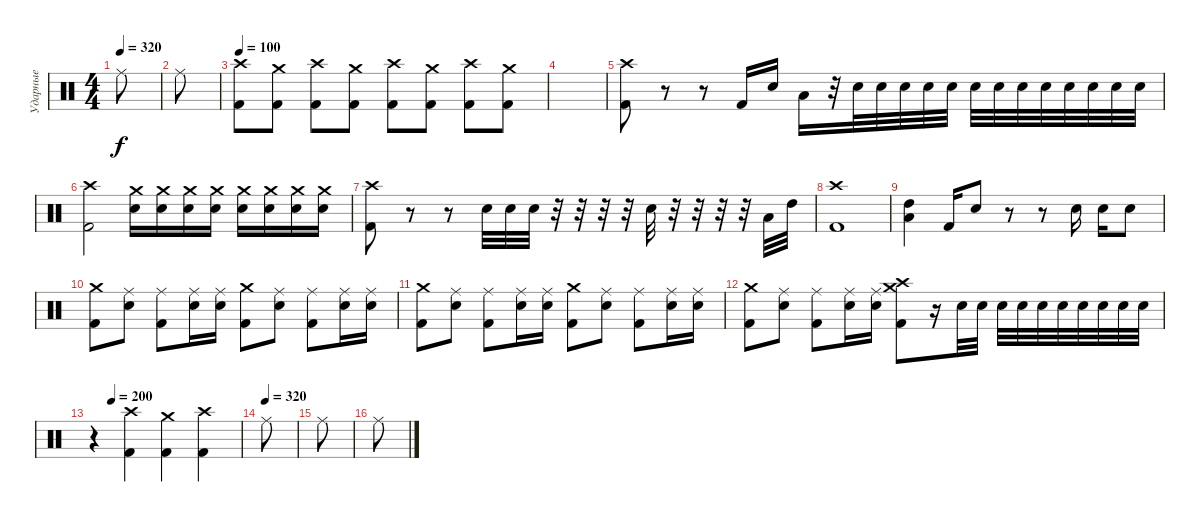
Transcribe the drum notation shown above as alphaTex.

\track ("Ударные" "Ударные") {instrument percussion}
\staff {score}
\articulation defaults
\ts (4 4)
\tempo 320
\clef neutral
\ks c "Ride (middle)".8{dy f}
|
"Ride (middle)".8 |
\tempo 100
("Kick (hit) 2" "Crash high (hit)").8 ("Kick (hit) 2" "Crash medium (hit)").8 ("Kick (hit) 2" "Crash high (hit)").8 ("Kick (hit) 2" "Crash medium (hit)").8 ("Kick (hit) 2" "Crash high (hit)").8 ("Kick (hit) 2" "Crash medium (hit)").8 ("Kick (hit) 2" "Crash high (hit)").8 ("Kick (hit) 2" "Crash medium (hit)").8 |
|
("Kick (hit) 2" "Crash high (hit)").8 r.8 r.8 "Kick (hit) 2".16 "Electric Snare (hit)".16 "Low Tom (hit)".16 r.32 "Electric Snare (hit)".32 "Electric Snare (hit)".32 "Electric Snare (hit)".32 "Electric Snare (hit)".32 "Electric Snare (hit)".32 "Electric Snare (hit)".32 "Electric Snare (hit)".32 "Electric Snare (hit)".32 "Electric Snare (hit)".32 "Electric Snare (hit)".32 "Electric Snare (hit)".32 "Electric Snare (hit)".32 "Electric Snare (hit)".32 |
("Kick (hit) 2" "Crash high (hit)").2 ("Electric Snare (hit)" "Crash medium (hit)").16 ("Electric Snare (hit)" "Crash medium (hit)").16 ("Electric Snare (hit)" "Crash medium (hit)").16 ("Electric Snare (hit)" "Crash medium (hit)").16 ("Electric Snare (hit)" "Crash medium (hit)").16 ("Electric Snare (hit)" "Crash medium (hit)").16 ("Electric Snare (hit)" "Crash medium (hit)").16 ("Electric Snare (hit)" "Crash medium (hit)").16 |
("Kick (hit) 2" "Crash high (hit)").8 r.8 r.8 "Electric Snare (hit)".32 "Electric Snare (hit)".32 "Electric Snare (hit)".32 r.32 r.32 r.32 r.32 "Electric Snare (hit)".32 r.32 r.32 r.32 r.32 "Low Tom (hit)".32 "High Tom (hit)".32 |
("Kick (hit) 2" "Crash high (hit)").1 |
("Low Tom (hit)" "High Tom (hit)").4 "Kick (hit) 2".16 "Electric Snare (hit)".8 r.8 r.8 "Electric Snare (hit)".16 "Electric Snare (hit)".16 "Electric Snare (hit)".8 |
("Kick (hit) 2" "Crash medium (hit)").8 ("Electric Snare (hit)" "Ride (middle)").8 ("Kick (hit) 2" "Ride (middle)").8 ("Electric Snare (hit)" "Ride (middle)").16 ("Electric Snare (hit)" "Ride (middle)").16 ("Kick (hit) 2" "Crash medium (hit)").8 ("Electric Snare (hit)" "Ride (middle)").8 ("Kick (hit) 2" "Ride (middle)").8 ("Electric Snare (hit)" "Ride (middle)").16 ("Electric Snare (hit)" "Ride (middle)").16 |
("Kick (hit) 2" "Crash medium (hit)").8 ("Electric Snare (hit)" "Ride (middle)").8 ("Kick (hit) 2" "Ride (middle)").8 ("Electric Snare (hit)" "Ride (middle)").16 ("Electric Snare (hit)" "Ride (middle)").16 ("Kick (hit) 2" "Crash medium (hit)").8 ("Electric Snare (hit)" "Ride (middle)").8 ("Kick (hit) 2" "Ride (middle)").8 ("Electric Snare (hit)" "Ride (middle)").16 ("Electric Snare (hit)" "Ride (middle)").16 |
("Kick (hit) 2" "Crash medium (hit)").8 ("Electric Snare (hit)" "Ride (middle)").8 ("Kick (hit) 2" "Ride (middle)").8 ("Electric Snare (hit)" "Ride (middle)").16 ("Electric Snare (hit)" "Ride (middle)").16 ("Kick (hit) 2" "Crash high (hit)" "Crash medium (hit)").8 r.16 "Electric Snare (hit)".32 "Electric Snare (hit)".32 "Electric Snare (hit)".32 "Electric Snare (hit)".32 "Electric Snare (hit)".32 "Electric Snare (hit)".32 "Electric Snare (hit)".32 "Electric Snare (hit)".32 "Electric Snare (hit)".32 "Electric Snare (hit)".32 |
\tempo (200 0.125)
r.4 ("Kick (hit) 2" "Crash high (hit)").4 ("Kick (hit) 2" "Crash medium (hit)").4 ("Kick (hit) 2" "Crash high (hit)").4 |
\tempo (320)
"Ride (middle)".8 |
"Ride (middle)".8 |
"Ride (middle)".8
